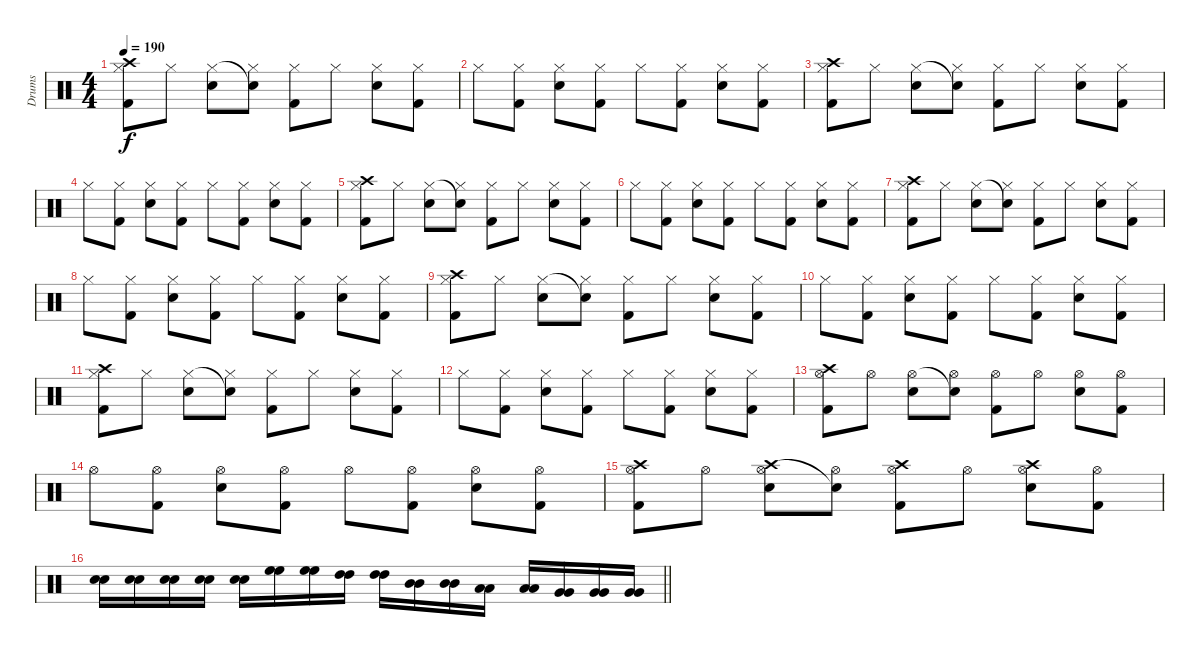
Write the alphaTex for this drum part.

\track ("Drums" "Drums") {instrument percussion}
\staff {score}
\articulation defaults
\ts (4 4)
\tempo 190
\clef neutral
\ks c
("Crash high (hit)" "Hi-Hat (closed)" "Kick (hit) 2").8{dy f} "Hi-Hat (closed)".8 ("Hi-Hat (closed)" "Electric Snare (hit)").8 ("Snare (hit)"{t} "Hi-Hat (closed)").8 ("Hi-Hat (closed)" "Kick (hit) 2").8 "Hi-Hat (closed)".8 ("Hi-Hat (closed)" "Electric Snare (hit)").8 ("Hi-Hat (closed)" "Kick (hit) 2").8 |
"Hi-Hat (closed)".8 ("Hi-Hat (closed)" "Kick (hit) 2").8 ("Hi-Hat (closed)" "Electric Snare (hit)").8 ("Hi-Hat (closed)" "Kick (hit) 2").8 "Hi-Hat (closed)".8 ("Hi-Hat (closed)" "Kick (hit) 2").8 ("Hi-Hat (closed)" "Electric Snare (hit)").8 ("Hi-Hat (closed)" "Kick (hit) 2").8 |
("Crash high (hit)" "Hi-Hat (closed)" "Kick (hit) 2").8 "Hi-Hat (closed)".8 ("Hi-Hat (closed)" "Electric Snare (hit)").8 ("Snare (hit)"{t} "Hi-Hat (closed)").8 ("Hi-Hat (closed)" "Kick (hit) 2").8 "Hi-Hat (closed)".8 ("Hi-Hat (closed)" "Electric Snare (hit)").8 ("Hi-Hat (closed)" "Kick (hit) 2").8 |
"Hi-Hat (closed)".8 ("Hi-Hat (closed)" "Kick (hit) 2").8 ("Hi-Hat (closed)" "Electric Snare (hit)").8 ("Hi-Hat (closed)" "Kick (hit) 2").8 "Hi-Hat (closed)".8 ("Hi-Hat (closed)" "Kick (hit) 2").8 ("Hi-Hat (closed)" "Electric Snare (hit)").8 ("Hi-Hat (closed)" "Kick (hit) 2").8 |
("Crash high (hit)" "Hi-Hat (closed)" "Kick (hit) 2").8 "Hi-Hat (closed)".8 ("Hi-Hat (closed)" "Electric Snare (hit)").8 ("Snare (hit)"{t} "Hi-Hat (closed)").8 ("Hi-Hat (closed)" "Kick (hit) 2").8 "Hi-Hat (closed)".8 ("Hi-Hat (closed)" "Electric Snare (hit)").8 ("Hi-Hat (closed)" "Kick (hit) 2").8 |
"Hi-Hat (closed)".8 ("Hi-Hat (closed)" "Kick (hit) 2").8 ("Hi-Hat (closed)" "Electric Snare (hit)").8 ("Hi-Hat (closed)" "Kick (hit) 2").8 "Hi-Hat (closed)".8 ("Hi-Hat (closed)" "Kick (hit) 2").8 ("Hi-Hat (closed)" "Electric Snare (hit)").8 ("Hi-Hat (closed)" "Kick (hit) 2").8 |
("Crash high (hit)" "Hi-Hat (closed)" "Kick (hit) 2").8 "Hi-Hat (closed)".8 ("Hi-Hat (closed)" "Electric Snare (hit)").8 ("Snare (hit)"{t} "Hi-Hat (closed)").8 ("Hi-Hat (closed)" "Kick (hit) 2").8 "Hi-Hat (closed)".8 ("Hi-Hat (closed)" "Electric Snare (hit)").8 ("Hi-Hat (closed)" "Kick (hit) 2").8 |
"Hi-Hat (closed)".8 ("Hi-Hat (closed)" "Kick (hit) 2").8 ("Hi-Hat (closed)" "Electric Snare (hit)").8 ("Hi-Hat (closed)" "Kick (hit) 2").8 "Hi-Hat (closed)".8 ("Hi-Hat (closed)" "Kick (hit) 2").8 ("Hi-Hat (closed)" "Electric Snare (hit)").8 ("Hi-Hat (closed)" "Kick (hit) 2").8 |
("Crash high (hit)" "Hi-Hat (closed)" "Kick (hit) 2").8 "Hi-Hat (closed)".8 ("Hi-Hat (closed)" "Electric Snare (hit)").8 ("Snare (hit)"{t} "Hi-Hat (closed)").8 ("Hi-Hat (closed)" "Kick (hit) 2").8 "Hi-Hat (closed)".8 ("Hi-Hat (closed)" "Electric Snare (hit)").8 ("Hi-Hat (closed)" "Kick (hit) 2").8 |
"Hi-Hat (closed)".8 ("Hi-Hat (closed)" "Kick (hit) 2").8 ("Hi-Hat (closed)" "Electric Snare (hit)").8 ("Hi-Hat (closed)" "Kick (hit) 2").8 "Hi-Hat (closed)".8 ("Hi-Hat (closed)" "Kick (hit) 2").8 ("Hi-Hat (closed)" "Electric Snare (hit)").8 ("Hi-Hat (closed)" "Kick (hit) 2").8 |
("Crash high (hit)" "Hi-Hat (closed)" "Kick (hit) 2").8 "Hi-Hat (closed)".8 ("Hi-Hat (closed)" "Electric Snare (hit)").8 ("Snare (hit)"{t} "Hi-Hat (closed)").8 ("Hi-Hat (closed)" "Kick (hit) 2").8 "Hi-Hat (closed)".8 ("Hi-Hat (closed)" "Electric Snare (hit)").8 ("Hi-Hat (closed)" "Kick (hit) 2").8 |
"Hi-Hat (closed)".8 ("Hi-Hat (closed)" "Kick (hit) 2").8 ("Hi-Hat (closed)" "Electric Snare (hit)").8 ("Hi-Hat (closed)" "Kick (hit) 2").8 "Hi-Hat (closed)".8 ("Hi-Hat (closed)" "Kick (hit) 2").8 ("Hi-Hat (closed)" "Electric Snare (hit)").8 ("Hi-Hat (closed)" "Kick (hit) 2").8 |
("Crash high (hit)" "Hi-Hat (open)" "Kick (hit) 2").8 "Hi-Hat (open)".8 ("Hi-Hat (open)" "Electric Snare (hit)").8 ("Snare (hit)"{t} "Hi-Hat (open)").8 ("Hi-Hat (open)" "Kick (hit) 2").8 "Hi-Hat (open)".8 ("Hi-Hat (open)" "Electric Snare (hit)").8 ("Hi-Hat (open)" "Kick (hit) 2").8 |
"Hi-Hat (open)".8 ("Hi-Hat (open)" "Kick (hit) 2").8 ("Hi-Hat (open)" "Electric Snare (hit)").8 ("Hi-Hat (open)" "Kick (hit) 2").8 "Hi-Hat (open)".8 ("Hi-Hat (open)" "Kick (hit) 2").8 ("Hi-Hat (open)" "Electric Snare (hit)").8 ("Hi-Hat (open)" "Kick (hit) 2").8 |
("Crash high (hit)" "Hi-Hat (open)" "Kick (hit) 2").8 "Hi-Hat (open)".8 ("Crash high (hit)" "Hi-Hat (open)" "Electric Snare (hit)").8 ("Snare (hit)"{t} "Hi-Hat (open)").8 ("Crash high (hit)" "Hi-Hat (open)" "Kick (hit) 2").8 "Hi-Hat (open)".8 ("Crash high (hit)" "Hi-Hat (open)" "Electric Snare (hit)").8 ("Hi-Hat (open)" "Kick (hit) 2").8 |
\barLineRight lightlight
("Snare (hit) 2" "Electric Snare (hit)").16 ("Snare (hit) 2" "Electric Snare (hit)").16 ("Snare (hit) 2" "Electric Snare (hit)").16 ("Snare (hit) 2" "Electric Snare (hit)").16 ("Snare (hit) 2" "Electric Snare (hit)").16 ("High Floor Tom (hit)" "High Floor Tom (hit)").16 ("High Floor Tom (hit)" "High Floor Tom (hit)").16 ("High Tom (hit)" "High Tom (hit)").16 ("High Tom (hit)" "High Tom (hit)").16 ("Mid Tom (hit)" "Mid Tom (hit)").16 ("Mid Tom (hit)" "Mid Tom (hit)").16 ("Low Tom (hit)" "Low Tom (hit)").16 ("Low Tom (hit)" "Low Tom (hit)").16 ("Very Low Tom (hit)" "Very Low Tom (hit)").16 ("Very Low Tom (hit)" "Very Low Tom (hit)").16 ("Very Low Tom (hit)" "Very Low Tom (hit)").16
